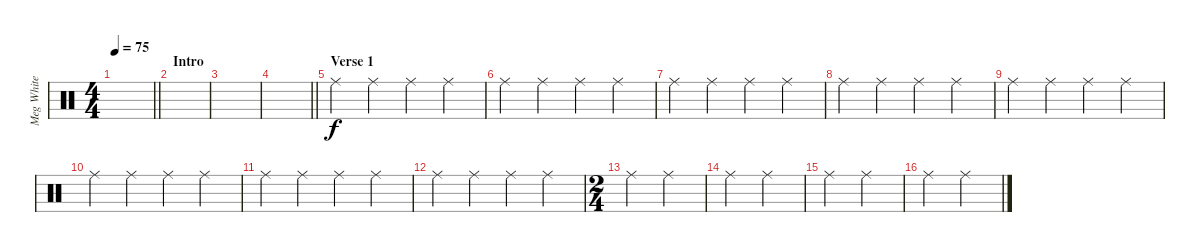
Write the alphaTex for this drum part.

\track ("Meg White (Drums)" "Meg White ") {instrument percussion}
\staff {score}
\articulation defaults
\ts (4 4)
\tempo 75
\clef neutral
\barLineRight lightlight
\ks c
|
\section ("" "Intro")
|
|
\barLineRight lightlight
|
\section ("" "Verse 1")
"Ride (middle)".4 "Ride (middle)".4 "Ride (middle)".4 "Ride (middle)".4 |
"Ride (middle)".4 "Ride (middle)".4 "Ride (middle)".4 "Ride (middle)".4 |
"Ride (middle)".4 "Ride (middle)".4 "Ride (middle)".4 "Ride (middle)".4 |
"Ride (middle)".4 "Ride (middle)".4 "Ride (middle)".4 "Ride (middle)".4 |
"Ride (middle)".4 "Ride (middle)".4 "Ride (middle)".4 "Ride (middle)".4 |
"Ride (middle)".4 "Ride (middle)".4 "Ride (middle)".4 "Ride (middle)".4 |
"Ride (middle)".4 "Ride (middle)".4 "Ride (middle)".4 "Ride (middle)".4 |
"Ride (middle)".4 "Ride (middle)".4 "Ride (middle)".4 "Ride (middle)".4 |
\ts (2 4)
"Ride (middle)".4 "Ride (middle)".4 |
"Ride (middle)".4 "Ride (middle)".4 |
"Ride (middle)".4 "Ride (middle)".4 |
"Ride (middle)".4 "Ride (middle)".4
